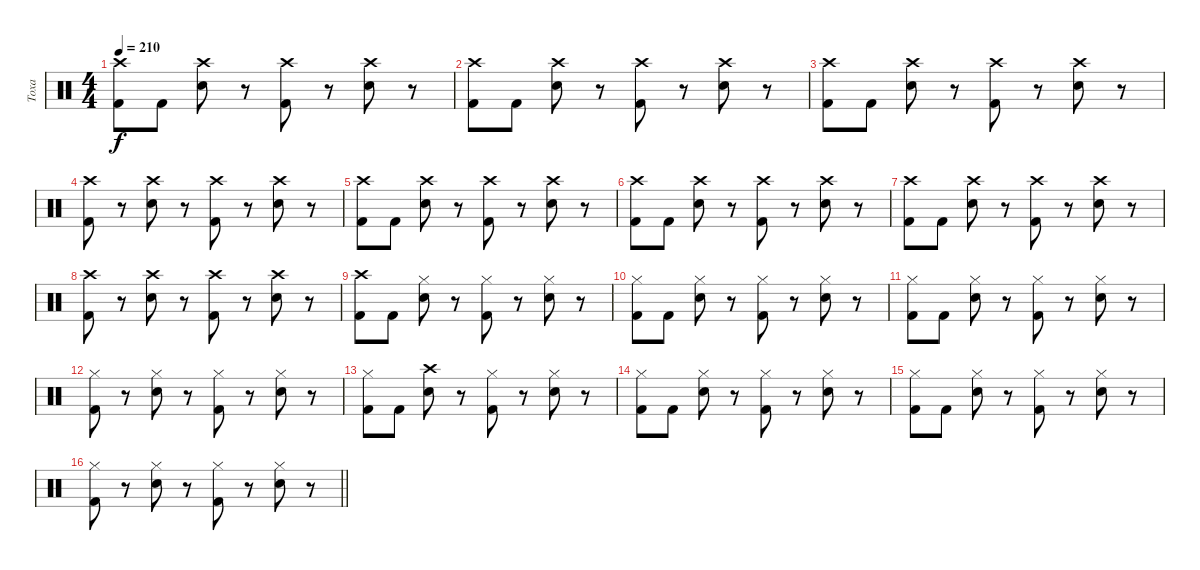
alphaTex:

\track ("Toxa" "Toxa") {instrument percussion}
\staff {score}
\articulation defaults
\ts (4 4)
\tempo 210
\clef neutral
\ks c
("Kick (hit) 2" "Crash high (hit)").8{dy f} "Kick (hit) 2".8 ("Snare (hit) 2" "Crash high (hit)").8 r.8 ("Kick (hit) 2" "Crash high (hit)").8 r.8 ("Snare (hit) 2" "Crash high (hit)").8 r.8 |
("Kick (hit) 2" "Crash high (hit)").8 "Kick (hit) 2".8 ("Snare (hit) 2" "Crash high (hit)").8 r.8 ("Kick (hit) 2" "Crash high (hit)").8 r.8 ("Snare (hit) 2" "Crash high (hit)").8 r.8 |
("Kick (hit) 2" "Crash high (hit)").8 "Kick (hit) 2".8 ("Snare (hit) 2" "Crash high (hit)").8 r.8 ("Kick (hit) 2" "Crash high (hit)").8 r.8 ("Snare (hit) 2" "Crash high (hit)").8 r.8 |
("Kick (hit) 2" "Crash high (hit)").8 r.8 ("Snare (hit) 2" "Crash high (hit)").8 r.8 ("Kick (hit) 2" "Crash high (hit)").8 r.8 ("Snare (hit) 2" "Crash high (hit)").8 r.8 |
("Kick (hit) 2" "Crash high (hit)").8 "Kick (hit) 2".8 ("Snare (hit) 2" "Crash high (hit)").8 r.8 ("Kick (hit) 2" "Crash high (hit)").8 r.8 ("Snare (hit) 2" "Crash high (hit)").8 r.8 |
("Kick (hit) 2" "Crash high (hit)").8 "Kick (hit) 2".8 ("Snare (hit) 2" "Crash high (hit)").8 r.8 ("Kick (hit) 2" "Crash high (hit)").8 r.8 ("Snare (hit) 2" "Crash high (hit)").8 r.8 |
("Kick (hit) 2" "Crash high (hit)").8 "Kick (hit) 2".8 ("Snare (hit) 2" "Crash high (hit)").8 r.8 ("Kick (hit) 2" "Crash high (hit)").8 r.8 ("Snare (hit) 2" "Crash high (hit)").8 r.8 |
("Kick (hit) 2" "Crash high (hit)").8 r.8 ("Snare (hit) 2" "Crash high (hit)").8 r.8 ("Kick (hit) 2" "Crash high (hit)").8 r.8 ("Snare (hit) 2" "Crash high (hit)").8 r.8 |
("Kick (hit) 2" "Crash high (hit)").8 "Kick (hit) 2".8 ("Snare (hit) 2" "Hi-Hat (closed)").8 r.8 ("Kick (hit) 2" "Hi-Hat (closed)").8 r.8 ("Snare (hit) 2" "Hi-Hat (closed)").8 r.8 |
("Kick (hit) 2" "Hi-Hat (closed)").8 "Kick (hit) 2".8 ("Snare (hit) 2" "Hi-Hat (closed)").8 r.8 ("Kick (hit) 2" "Hi-Hat (closed)").8 r.8 ("Snare (hit) 2" "Hi-Hat (closed)").8 r.8 |
("Kick (hit) 2" "Hi-Hat (closed)").8 "Kick (hit) 2".8 ("Snare (hit) 2" "Hi-Hat (closed)").8 r.8 ("Kick (hit) 2" "Hi-Hat (closed)").8 r.8 ("Snare (hit) 2" "Hi-Hat (closed)").8 r.8 |
("Kick (hit) 2" "Hi-Hat (closed)").8 r.8 ("Snare (hit) 2" "Hi-Hat (closed)").8 r.8 ("Kick (hit) 2" "Hi-Hat (closed)").8 r.8 ("Snare (hit) 2" "Hi-Hat (closed)").8 r.8 |
("Kick (hit) 2" "Hi-Hat (closed)").8 "Kick (hit) 2".8 ("Snare (hit) 2" "Crash high (hit)").8 r.8 ("Kick (hit) 2" "Hi-Hat (closed)").8 r.8 ("Snare (hit) 2" "Hi-Hat (closed)").8 r.8 |
("Kick (hit) 2" "Hi-Hat (closed)").8 "Kick (hit) 2".8 ("Snare (hit) 2" "Hi-Hat (closed)").8 r.8 ("Kick (hit) 2" "Hi-Hat (closed)").8 r.8 ("Snare (hit) 2" "Hi-Hat (closed)").8 r.8 |
("Kick (hit) 2" "Hi-Hat (closed)").8 "Kick (hit) 2".8 ("Snare (hit) 2" "Hi-Hat (closed)").8 r.8 ("Kick (hit) 2" "Hi-Hat (closed)").8 r.8 ("Snare (hit) 2" "Hi-Hat (closed)").8 r.8 |
\barLineRight lightlight
("Kick (hit) 2" "Hi-Hat (closed)").8 r.8 ("Snare (hit) 2" "Hi-Hat (closed)").8 r.8 ("Kick (hit) 2" "Hi-Hat (closed)").8 r.8 ("Snare (hit) 2" "Hi-Hat (closed)").8 r.8
